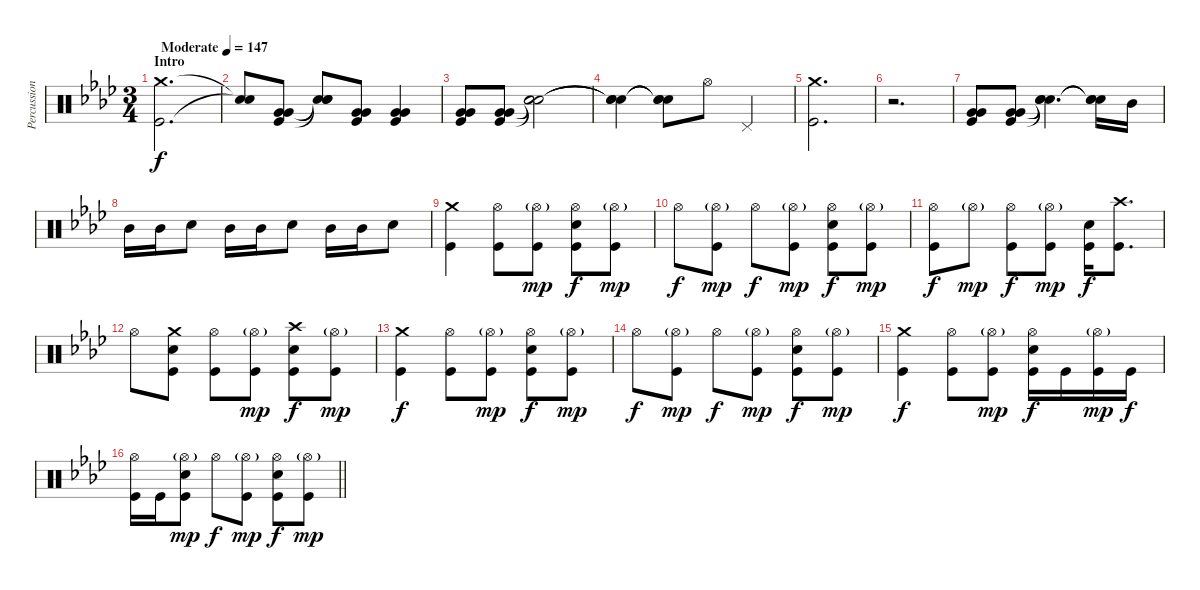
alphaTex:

\track ("Percussion" "Percussion") {instrument percussion}
\staff {score}
\articulation defaults
\ts (3 4)
\section ("" "Intro")
\tempo (147 "Moderate")
\clef neutral
\ks ab
("Crash medium (hit)" "Kick (hit)").2{d dy f} |
("Snare (hit)"{t} "Snare (hit)"{t}).8 ("Very Low Tom (hit)" "Very Low Tom (hit)" "Kick (hit)").8 ("Snare (hit)"{t} "Snare (hit)"{t} "Snare (hit)"{t}).8 ("Very Low Tom (hit)" "Very Low Tom (hit)" "Kick (hit)").8 ("Very Low Tom (hit)" "Very Low Tom (hit)" "Kick (hit)").4 |
("Very Low Tom (hit)" "Very Low Tom (hit)" "Kick (hit)").8 ("Very Low Tom (hit)" "Very Low Tom (hit)" "Kick (hit)").8 ("Snare (hit)"{t} "Snare (hit)"{t} "Snare (hit)"{t}).2 |
("Snare (hit)"{t} "Snare (hit)"{t} "Snare (hit)"{t}).4 ("Snare (hit)"{t} "Snare (hit)"{t} "Snare (hit)"{t}).8 "Hi-Hat (open)".8 "Pedal Hi-Hat (hit)".4 |
("Crash medium (hit)" "Kick (hit)").2{d} |
r.2{d} |
("Very Low Tom (hit)" "Very Low Tom (hit)" "Kick (hit)").8 ("Very Low Tom (hit)" "Very Low Tom (hit)" "Kick (hit)").8 ("Snare (hit)"{t} "Snare (hit)"{t} "Snare (hit)"{t}).4{d} ("Snare (hit)"{t} "Snare (hit)"{t} "Snare (hit)"{t}).16 "Mid Tom (hit)".16 |
"Mid Tom (hit)".16 "Mid Tom (hit)".16 "Electric Snare (hit)".8 "Mid Tom (hit)".16 "Mid Tom (hit)".16 "Electric Snare (hit)".8 "Mid Tom (hit)".16 "Mid Tom (hit)".16 "Electric Snare (hit)".8 |
("Crash medium (hit)" "Kick (hit)").4 ("Hi-Hat (open)" "Kick (hit)").8 ("Hi-Hat (open)"{g} "Kick (hit)").8{dy mp} ("Hi-Hat (open)" "Electric Snare (hit)" "Kick (hit)").8{dy f} ("Hi-Hat (open)"{g} "Kick (hit)").8{dy mp} |
"Hi-Hat (open)".8{dy f} ("Hi-Hat (open)"{g} "Kick (hit)").8{dy mp} "Hi-Hat (open)".8{dy f} ("Hi-Hat (open)"{g} "Kick (hit)").8{dy mp} ("Hi-Hat (open)" "Electric Snare (hit)" "Kick (hit)").8{dy f} ("Hi-Hat (open)"{g} "Kick (hit)").8{dy mp} |
("Hi-Hat (open)" "Kick (hit)").8{dy f} "Hi-Hat (open)"{g}.8{dy mp} ("Hi-Hat (open)" "Kick (hit)").8{dy f} ("Hi-Hat (open)"{g} "Kick (hit)").8{dy mp} ("Electric Snare (hit)" "Kick (hit)").16{dy f} ("Crash high (hit)" "Kick (hit)").8{d} |
"Hi-Hat (open)".8 ("Crash medium (hit)" "Electric Snare (hit)" "Kick (hit)").8 ("Hi-Hat (open)" "Kick (hit)").8 ("Hi-Hat (open)"{g} "Kick (hit)").8{dy mp} ("Crash high (hit)" "Electric Snare (hit)" "Kick (hit)").8{dy f} ("Hi-Hat (open)"{g} "Kick (hit)").8{dy mp} |
("Crash medium (hit)" "Kick (hit)").4{dy f} ("Hi-Hat (open)" "Kick (hit)").8 ("Hi-Hat (open)"{g} "Kick (hit)").8{dy mp} ("Hi-Hat (open)" "Electric Snare (hit)" "Kick (hit)").8{dy f} ("Hi-Hat (open)"{g} "Kick (hit)").8{dy mp} |
"Hi-Hat (open)".8{dy f} ("Hi-Hat (open)"{g} "Kick (hit)").8{dy mp} "Hi-Hat (open)".8{dy f} ("Hi-Hat (open)"{g} "Kick (hit)").8{dy mp} ("Hi-Hat (open)" "Electric Snare (hit)" "Kick (hit)").8{dy f} ("Hi-Hat (open)"{g} "Kick (hit)").8{dy mp} |
("Crash medium (hit)" "Kick (hit)").4{dy f} ("Hi-Hat (open)" "Kick (hit)").8 ("Hi-Hat (open)"{g} "Kick (hit)").8{dy mp} ("Hi-Hat (open)" "Electric Snare (hit)" "Kick (hit)").16{dy f} "Kick (hit)".16 ("Hi-Hat (open)"{g} "Kick (hit)").16{dy mp} "Kick (hit)".16{dy f} |
\barLineRight lightlight
("Hi-Hat (open)" "Kick (hit)").16 "Kick (hit)".16 ("Hi-Hat (open)"{g} "Electric Snare (hit)" "Kick (hit)").8{dy mp} "Hi-Hat (open)".8{dy f} ("Hi-Hat (open)"{g} "Kick (hit)").8{dy mp} ("Hi-Hat (open)" "Electric Snare (hit)" "Kick (hit)").8{dy f} ("Hi-Hat (open)"{g} "Kick (hit)").8{dy mp}
